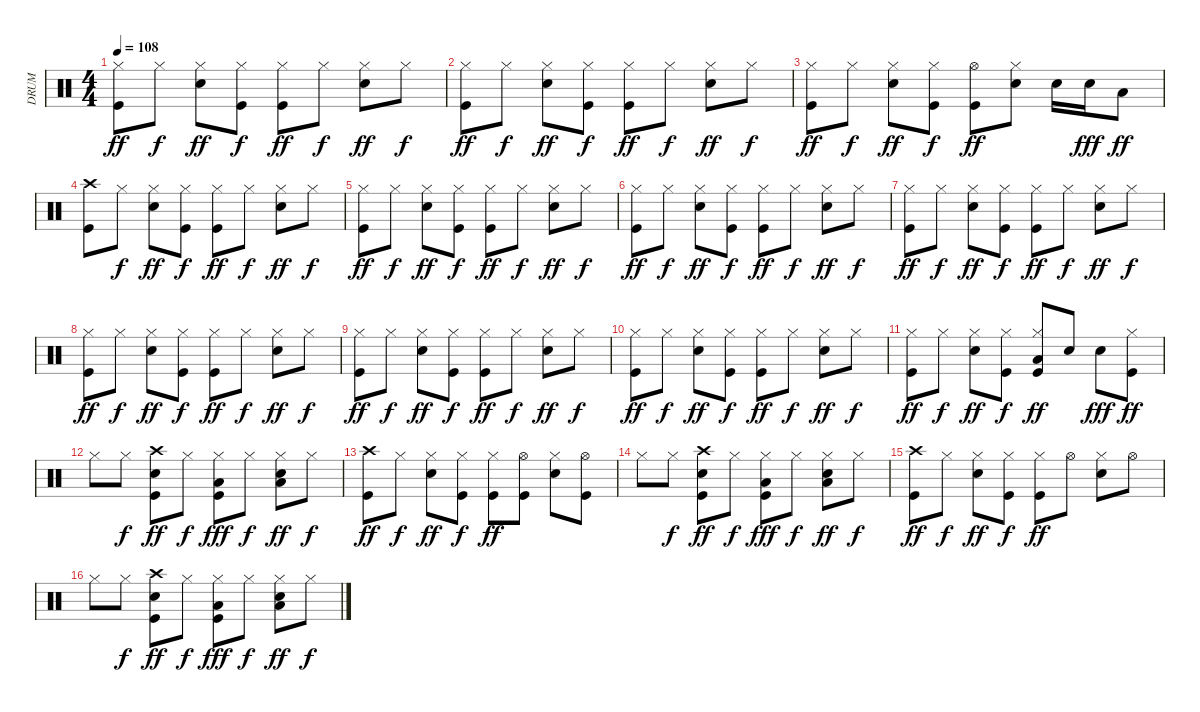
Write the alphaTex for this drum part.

\track ("DRUM" "DRUM") {instrument percussion}
\staff {score}
\articulation defaults
\ts (4 4)
\tempo 108
\clef neutral
\ks c
("Kick (hit)" "Hi-Hat (closed)").8{dy ff} "Hi-Hat (closed)".8{dy f} ("Electric Snare (hit)" "Hi-Hat (closed)").8{dy ff} ("Kick (hit)" "Hi-Hat (closed)").8{dy f} ("Kick (hit)" "Hi-Hat (closed)").8{dy ff} "Hi-Hat (closed)".8{dy f} ("Electric Snare (hit)" "Hi-Hat (closed)").8{dy ff} "Hi-Hat (closed)".8{dy f} |
("Kick (hit)" "Hi-Hat (closed)").8{dy ff} "Hi-Hat (closed)".8{dy f} ("Electric Snare (hit)" "Hi-Hat (closed)").8{dy ff} ("Kick (hit)" "Hi-Hat (closed)").8{dy f} ("Kick (hit)" "Hi-Hat (closed)").8{dy ff} "Hi-Hat (closed)".8{dy f} ("Electric Snare (hit)" "Hi-Hat (closed)").8{dy ff} "Hi-Hat (closed)".8{dy f} |
("Kick (hit)" "Hi-Hat (closed)").8{dy ff} "Hi-Hat (closed)".8{dy f} ("Electric Snare (hit)" "Hi-Hat (closed)").8{dy ff} ("Kick (hit)" "Hi-Hat (closed)").8{dy f} ("Kick (hit)" "Hi-Hat (open)").8{dy ff} ("Electric Snare (hit)" "Hi-Hat (closed)").8 "Electric Snare (hit)".16 "Electric Snare (hit)".16{dy fff} "Low Tom (hit)".8{dy ff} |
("Kick (hit)" "Crash high (hit)").8 "Hi-Hat (closed)".8{dy f} ("Electric Snare (hit)" "Hi-Hat (closed)").8{dy ff} ("Kick (hit)" "Hi-Hat (closed)").8{dy f} ("Kick (hit)" "Hi-Hat (closed)").8{dy ff} "Hi-Hat (closed)".8{dy f} ("Electric Snare (hit)" "Hi-Hat (closed)").8{dy ff} "Hi-Hat (closed)".8{dy f} |
("Kick (hit)" "Hi-Hat (closed)").8{dy ff} "Hi-Hat (closed)".8{dy f} ("Electric Snare (hit)" "Hi-Hat (closed)").8{dy ff} ("Kick (hit)" "Hi-Hat (closed)").8{dy f} ("Kick (hit)" "Hi-Hat (closed)").8{dy ff} "Hi-Hat (closed)".8{dy f} ("Electric Snare (hit)" "Hi-Hat (closed)").8{dy ff} "Hi-Hat (closed)".8{dy f} |
("Kick (hit)" "Hi-Hat (closed)").8{dy ff} "Hi-Hat (closed)".8{dy f} ("Electric Snare (hit)" "Hi-Hat (closed)").8{dy ff} ("Kick (hit)" "Hi-Hat (closed)").8{dy f} ("Kick (hit)" "Hi-Hat (closed)").8{dy ff} "Hi-Hat (closed)".8{dy f} ("Electric Snare (hit)" "Hi-Hat (closed)").8{dy ff} "Hi-Hat (closed)".8{dy f} |
("Kick (hit)" "Hi-Hat (closed)").8{dy ff} "Hi-Hat (closed)".8{dy f} ("Electric Snare (hit)" "Hi-Hat (closed)").8{dy ff} ("Kick (hit)" "Hi-Hat (closed)").8{dy f} ("Kick (hit)" "Hi-Hat (closed)").8{dy ff} "Hi-Hat (closed)".8{dy f} ("Electric Snare (hit)" "Hi-Hat (closed)").8{dy ff} "Hi-Hat (closed)".8{dy f} |
("Kick (hit)" "Hi-Hat (closed)").8{dy ff} "Hi-Hat (closed)".8{dy f} ("Electric Snare (hit)" "Hi-Hat (closed)").8{dy ff} ("Kick (hit)" "Hi-Hat (closed)").8{dy f} ("Kick (hit)" "Hi-Hat (closed)").8{dy ff} "Hi-Hat (closed)".8{dy f} ("Electric Snare (hit)" "Hi-Hat (closed)").8{dy ff} "Hi-Hat (closed)".8{dy f} |
("Kick (hit)" "Hi-Hat (closed)").8{dy ff} "Hi-Hat (closed)".8{dy f} ("Electric Snare (hit)" "Hi-Hat (closed)").8{dy ff} ("Kick (hit)" "Hi-Hat (closed)").8{dy f} ("Kick (hit)" "Hi-Hat (closed)").8{dy ff} "Hi-Hat (closed)".8{dy f} ("Electric Snare (hit)" "Hi-Hat (closed)").8{dy ff} "Hi-Hat (closed)".8{dy f} |
("Kick (hit)" "Hi-Hat (closed)").8{dy ff} "Hi-Hat (closed)".8{dy f} ("Electric Snare (hit)" "Hi-Hat (closed)").8{dy ff} ("Kick (hit)" "Hi-Hat (closed)").8{dy f} ("Kick (hit)" "Hi-Hat (closed)").8{dy ff} "Hi-Hat (closed)".8{dy f} ("Electric Snare (hit)" "Hi-Hat (closed)").8{dy ff} "Hi-Hat (closed)".8{dy f} |
("Kick (hit)" "Hi-Hat (closed)").8{dy ff} "Hi-Hat (closed)".8{dy f} ("Electric Snare (hit)" "Hi-Hat (closed)").8{dy ff} ("Kick (hit)" "Hi-Hat (closed)").8{dy f} ("Kick (hit)" "Hi-Hat (closed)" "Low Tom (hit)").8{dy ff} "Electric Snare (hit)".8 "Electric Snare (hit)".8{dy fff} ("Kick (hit)" "Hi-Hat (closed)").8{dy ff} |
"Hi-Hat (closed)".8 "Hi-Hat (closed)".8{dy f} ("Electric Snare (hit)" "Kick (hit)" "Crash high (hit)").8{dy ff} "Hi-Hat (closed)".8{dy f} ("Kick (hit)" "Hi-Hat (closed)" "Low Tom (hit)").8{dy fff} "Hi-Hat (closed)".8{dy f} ("Electric Snare (hit)" "Low Floor Tom (hit)" "Hi-Hat (closed)").8{dy ff} "Hi-Hat (closed)".8{dy f} |
("Kick (hit)" "Crash high (hit)").8{dy ff} "Hi-Hat (closed)".8{dy f} ("Electric Snare (hit)" "Hi-Hat (closed)").8{dy ff} ("Kick (hit)" "Hi-Hat (closed)").8{dy f} ("Kick (hit)" "Hi-Hat (closed)").8{dy ff} ("Kick (hit)" "Hi-Hat (open)").8 ("Electric Snare (hit)" "Hi-Hat (closed)").8 ("Kick (hit)" "Hi-Hat (open)").8 |
"Hi-Hat (closed)".8 "Hi-Hat (closed)".8{dy f} ("Electric Snare (hit)" "Kick (hit)" "Crash high (hit)").8{dy ff} "Hi-Hat (closed)".8{dy f} ("Kick (hit)" "Hi-Hat (closed)" "Low Tom (hit)").8{dy fff} "Hi-Hat (closed)".8{dy f} ("Electric Snare (hit)" "Low Floor Tom (hit)" "Hi-Hat (closed)").8{dy ff} "Hi-Hat (closed)".8{dy f} |
("Kick (hit)" "Crash high (hit)").8{dy ff} "Hi-Hat (closed)".8{dy f} ("Electric Snare (hit)" "Hi-Hat (closed)").8{dy ff} ("Kick (hit)" "Hi-Hat (closed)").8{dy f} ("Kick (hit)" "Hi-Hat (closed)").8{dy ff} "Hi-Hat (open)".8 ("Electric Snare (hit)" "Hi-Hat (closed)").8 "Hi-Hat (open)".8 |
"Hi-Hat (closed)".8 "Hi-Hat (closed)".8{dy f} ("Electric Snare (hit)" "Kick (hit)" "Crash high (hit)").8{dy ff} "Hi-Hat (closed)".8{dy f} ("Kick (hit)" "Hi-Hat (closed)" "Low Tom (hit)").8{dy fff} "Hi-Hat (closed)".8{dy f} ("Electric Snare (hit)" "Low Floor Tom (hit)" "Hi-Hat (closed)").8{dy ff} "Hi-Hat (closed)".8{dy f}
